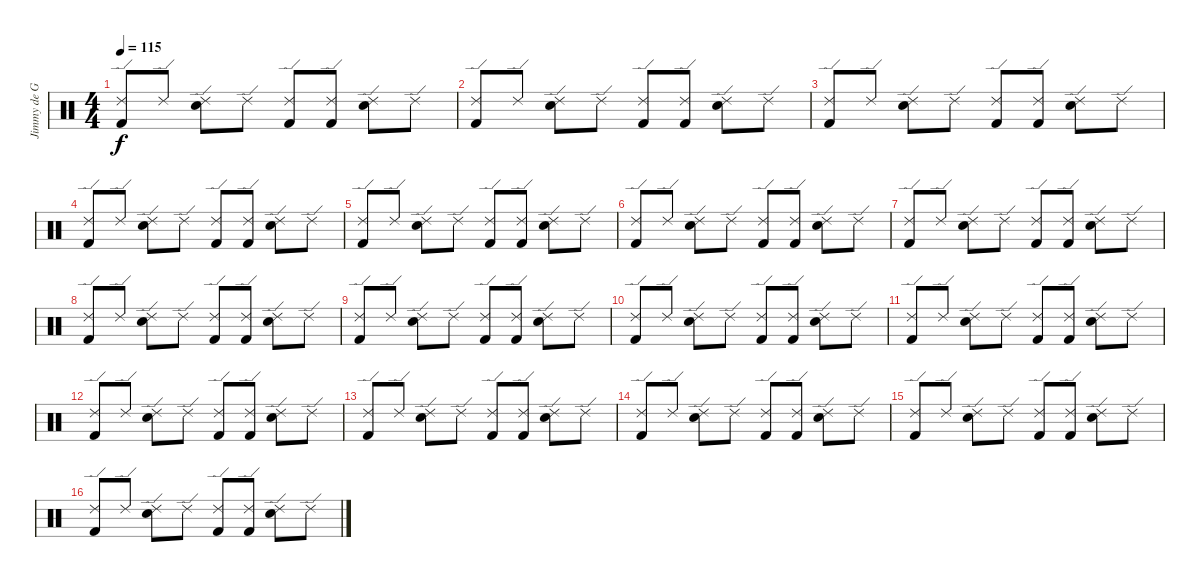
\track ("Jimmy de Grasso" "Jimmy de G") {instrument percussion}
\staff {score}
\articulation defaults
\ts (4 4)
\tempo 115
\clef neutral
\ks c
("Ride (edge) 2" "Kick (hit) 2").8{dy f} "Ride (edge) 2".8 ("Ride (edge) 2" "Snare (hit) 2").8 "Ride (edge) 2".8 ("Ride (edge) 2" "Kick (hit) 2").8 ("Ride (edge) 2" "Kick (hit) 2").8 ("Ride (edge) 2" "Snare (hit) 2").8 "Ride (edge) 2".8 |
("Ride (edge) 2" "Kick (hit) 2").8 "Ride (edge) 2".8 ("Ride (edge) 2" "Snare (hit) 2").8 "Ride (edge) 2".8 ("Ride (edge) 2" "Kick (hit) 2").8 ("Ride (edge) 2" "Kick (hit) 2").8 ("Ride (edge) 2" "Snare (hit) 2").8 "Ride (edge) 2".8 |
("Ride (edge) 2" "Kick (hit) 2").8 "Ride (edge) 2".8 ("Ride (edge) 2" "Snare (hit) 2").8 "Ride (edge) 2".8 ("Ride (edge) 2" "Kick (hit) 2").8 ("Ride (edge) 2" "Kick (hit) 2").8 ("Ride (edge) 2" "Snare (hit) 2").8 "Ride (edge) 2".8 |
("Ride (edge) 2" "Kick (hit) 2").8 "Ride (edge) 2".8 ("Ride (edge) 2" "Snare (hit) 2").8 "Ride (edge) 2".8 ("Ride (edge) 2" "Kick (hit) 2").8 ("Ride (edge) 2" "Kick (hit) 2").8 ("Ride (edge) 2" "Snare (hit) 2").8 "Ride (edge) 2".8 |
("Ride (edge) 2" "Kick (hit) 2").8 "Ride (edge) 2".8 ("Ride (edge) 2" "Snare (hit) 2").8 "Ride (edge) 2".8 ("Ride (edge) 2" "Kick (hit) 2").8 ("Ride (edge) 2" "Kick (hit) 2").8 ("Ride (edge) 2" "Snare (hit) 2").8 "Ride (edge) 2".8 |
("Ride (edge) 2" "Kick (hit) 2").8 "Ride (edge) 2".8 ("Ride (edge) 2" "Snare (hit) 2").8 "Ride (edge) 2".8 ("Ride (edge) 2" "Kick (hit) 2").8 ("Ride (edge) 2" "Kick (hit) 2").8 ("Ride (edge) 2" "Snare (hit) 2").8 "Ride (edge) 2".8 |
("Ride (edge) 2" "Kick (hit) 2").8 "Ride (edge) 2".8 ("Ride (edge) 2" "Snare (hit) 2").8 "Ride (edge) 2".8 ("Ride (edge) 2" "Kick (hit) 2").8 ("Ride (edge) 2" "Kick (hit) 2").8 ("Ride (edge) 2" "Snare (hit) 2").8 "Ride (edge) 2".8 |
("Ride (edge) 2" "Kick (hit) 2").8 "Ride (edge) 2".8 ("Ride (edge) 2" "Snare (hit) 2").8 "Ride (edge) 2".8 ("Ride (edge) 2" "Kick (hit) 2").8 ("Ride (edge) 2" "Kick (hit) 2").8 ("Ride (edge) 2" "Snare (hit) 2").8 "Ride (edge) 2".8 |
("Ride (edge) 2" "Kick (hit) 2").8 "Ride (edge) 2".8 ("Ride (edge) 2" "Snare (hit) 2").8 "Ride (edge) 2".8 ("Ride (edge) 2" "Kick (hit) 2").8 ("Ride (edge) 2" "Kick (hit) 2").8 ("Ride (edge) 2" "Snare (hit) 2").8 "Ride (edge) 2".8 |
("Ride (edge) 2" "Kick (hit) 2").8 "Ride (edge) 2".8 ("Ride (edge) 2" "Snare (hit) 2").8 "Ride (edge) 2".8 ("Ride (edge) 2" "Kick (hit) 2").8 ("Ride (edge) 2" "Kick (hit) 2").8 ("Ride (edge) 2" "Snare (hit) 2").8 "Ride (edge) 2".8 |
("Ride (edge) 2" "Kick (hit) 2").8 "Ride (edge) 2".8 ("Ride (edge) 2" "Snare (hit) 2").8 "Ride (edge) 2".8 ("Ride (edge) 2" "Kick (hit) 2").8 ("Ride (edge) 2" "Kick (hit) 2").8 ("Ride (edge) 2" "Snare (hit) 2").8 "Ride (edge) 2".8 |
("Ride (edge) 2" "Kick (hit) 2").8 "Ride (edge) 2".8 ("Ride (edge) 2" "Snare (hit) 2").8 "Ride (edge) 2".8 ("Ride (edge) 2" "Kick (hit) 2").8 ("Ride (edge) 2" "Kick (hit) 2").8 ("Ride (edge) 2" "Snare (hit) 2").8 "Ride (edge) 2".8 |
("Ride (edge) 2" "Kick (hit) 2").8 "Ride (edge) 2".8 ("Ride (edge) 2" "Snare (hit) 2").8 "Ride (edge) 2".8 ("Ride (edge) 2" "Kick (hit) 2").8 ("Ride (edge) 2" "Kick (hit) 2").8 ("Ride (edge) 2" "Snare (hit) 2").8 "Ride (edge) 2".8 |
("Ride (edge) 2" "Kick (hit) 2").8 "Ride (edge) 2".8 ("Ride (edge) 2" "Snare (hit) 2").8 "Ride (edge) 2".8 ("Ride (edge) 2" "Kick (hit) 2").8 ("Ride (edge) 2" "Kick (hit) 2").8 ("Ride (edge) 2" "Snare (hit) 2").8 "Ride (edge) 2".8 |
("Ride (edge) 2" "Kick (hit) 2").8 "Ride (edge) 2".8 ("Ride (edge) 2" "Snare (hit) 2").8 "Ride (edge) 2".8 ("Ride (edge) 2" "Kick (hit) 2").8 ("Ride (edge) 2" "Kick (hit) 2").8 ("Ride (edge) 2" "Snare (hit) 2").8 "Ride (edge) 2".8 |
("Ride (edge) 2" "Kick (hit) 2").8 "Ride (edge) 2".8 ("Ride (edge) 2" "Snare (hit) 2").8 "Ride (edge) 2".8 ("Ride (edge) 2" "Kick (hit) 2").8 ("Ride (edge) 2" "Kick (hit) 2").8 ("Ride (edge) 2" "Snare (hit) 2").8 "Ride (edge) 2".8
